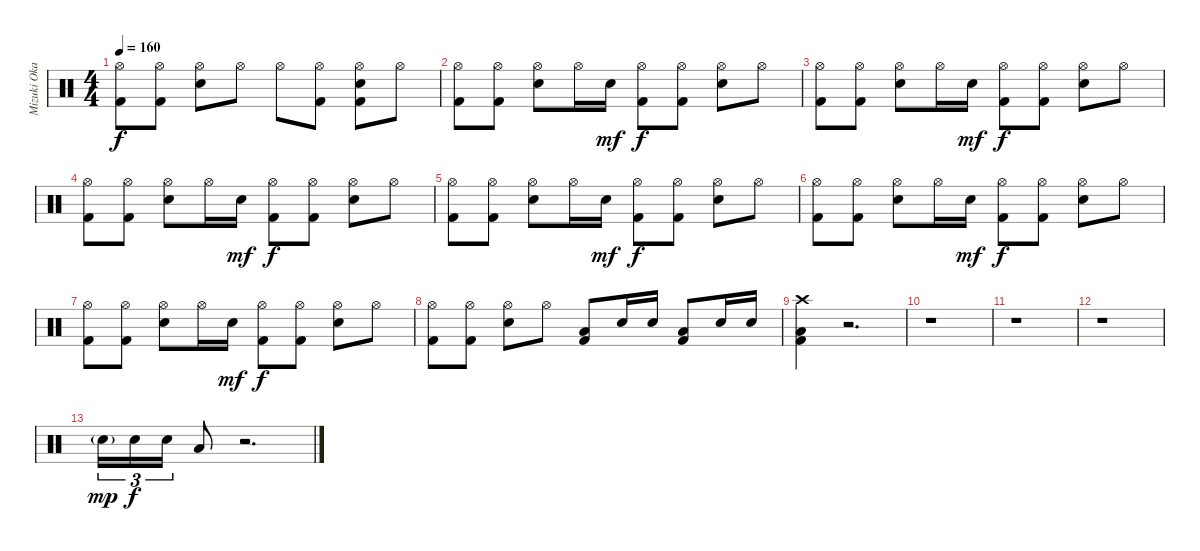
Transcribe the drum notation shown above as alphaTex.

\track ("Mizuki Okajima (Drums)" "Mizuki Oka") {instrument percussion}
\staff {score}
\articulation defaults
\ts (4 4)
\tempo 160
\clef neutral
\ks c
("Hi-Hat (open)" "Kick (hit) 2").8{dy f} ("Hi-Hat (open)" "Kick (hit) 2").8 ("Hi-Hat (open)" "Snare (hit) 2").8 "Hi-Hat (open)".8 "Hi-Hat (open)".8 ("Hi-Hat (open)" "Kick (hit) 2").8 ("Hi-Hat (open)" "Snare (hit) 2" "Kick (hit) 2").8 "Hi-Hat (open)".8 |
("Hi-Hat (open)" "Kick (hit) 2").8 ("Hi-Hat (open)" "Kick (hit) 2").8 ("Hi-Hat (open)" "Snare (hit) 2").8 "Hi-Hat (open)".16 "Snare (hit) 2".16{dy mf} ("Hi-Hat (open)" "Kick (hit) 2").8{dy f} ("Hi-Hat (open)" "Kick (hit) 2").8 ("Hi-Hat (open)" "Snare (hit) 2").8 "Hi-Hat (open)".8 |
("Hi-Hat (open)" "Kick (hit) 2").8 ("Hi-Hat (open)" "Kick (hit) 2").8 ("Hi-Hat (open)" "Snare (hit) 2").8 "Hi-Hat (open)".16 "Snare (hit) 2".16{dy mf} ("Hi-Hat (open)" "Kick (hit) 2").8{dy f} ("Hi-Hat (open)" "Kick (hit) 2").8 ("Hi-Hat (open)" "Snare (hit) 2").8 "Hi-Hat (open)".8 |
("Hi-Hat (open)" "Kick (hit) 2").8 ("Hi-Hat (open)" "Kick (hit) 2").8 ("Hi-Hat (open)" "Snare (hit) 2").8 "Hi-Hat (open)".16 "Snare (hit) 2".16{dy mf} ("Hi-Hat (open)" "Kick (hit) 2").8{dy f} ("Hi-Hat (open)" "Kick (hit) 2").8 ("Hi-Hat (open)" "Snare (hit) 2").8 "Hi-Hat (open)".8 |
("Hi-Hat (open)" "Kick (hit) 2").8 ("Hi-Hat (open)" "Kick (hit) 2").8 ("Hi-Hat (open)" "Snare (hit) 2").8 "Hi-Hat (open)".16 "Snare (hit) 2".16{dy mf} ("Hi-Hat (open)" "Kick (hit) 2").8{dy f} ("Hi-Hat (open)" "Kick (hit) 2").8 ("Hi-Hat (open)" "Snare (hit) 2").8 "Hi-Hat (open)".8 |
("Hi-Hat (open)" "Kick (hit) 2").8 ("Hi-Hat (open)" "Kick (hit) 2").8 ("Hi-Hat (open)" "Snare (hit) 2").8 "Hi-Hat (open)".16 "Snare (hit) 2".16{dy mf} ("Hi-Hat (open)" "Kick (hit) 2").8{dy f} ("Hi-Hat (open)" "Kick (hit) 2").8 ("Hi-Hat (open)" "Snare (hit) 2").8 "Hi-Hat (open)".8 |
("Hi-Hat (open)" "Kick (hit) 2").8 ("Hi-Hat (open)" "Kick (hit) 2").8 ("Hi-Hat (open)" "Snare (hit) 2").8 "Hi-Hat (open)".16 "Snare (hit) 2".16{dy mf} ("Hi-Hat (open)" "Kick (hit) 2").8{dy f} ("Hi-Hat (open)" "Kick (hit) 2").8 ("Hi-Hat (open)" "Snare (hit) 2").8 "Hi-Hat (open)".8 |
("Hi-Hat (open)" "Kick (hit) 2").8 ("Hi-Hat (open)" "Kick (hit) 2").8 ("Hi-Hat (open)" "Snare (hit) 2").8 "Hi-Hat (open)".8 ("Low Tom (hit)" "Kick (hit) 2").8 "Snare (hit) 2".16 "Snare (hit) 2".16 ("Low Tom (hit)" "Kick (hit) 2").8 "Snare (hit) 2".16 "Snare (hit) 2".16 |
("Crash high (hit)" "Low Tom (hit)" "Kick (hit) 2").4 r.2{d} |
r.1 |
r.1 |
r.1 |
"Snare (hit) 2"{g}.16{tu (3 2) dy mp} "Snare (hit) 2".16{tu (3 2) dy f} "Snare (hit) 2".16{tu (3 2)} "Low Tom (hit)".8 r.2{d}
